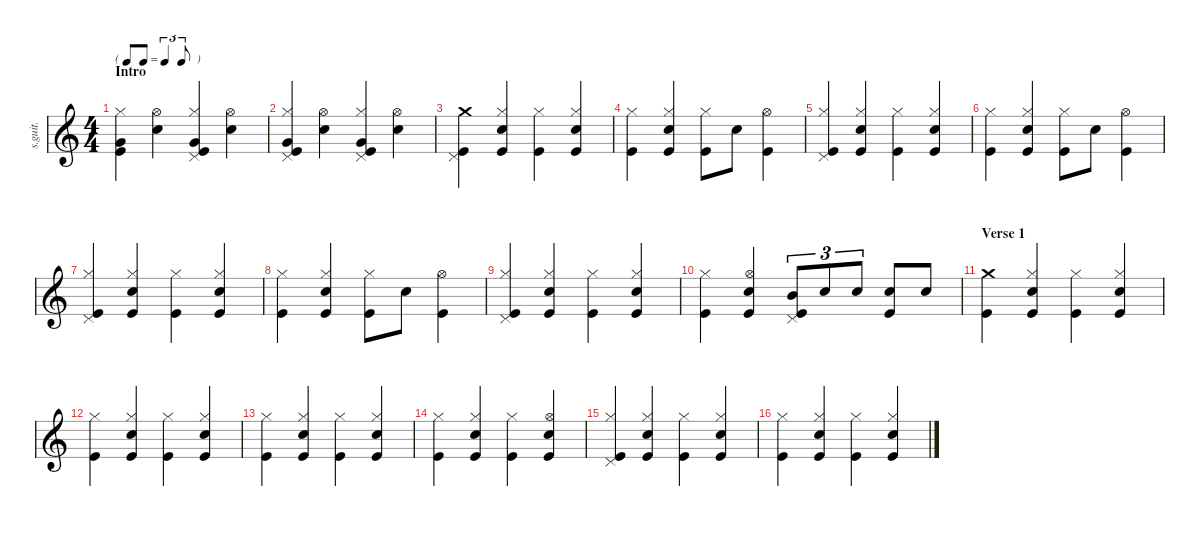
\defaultSystemsLayout 4
\hideDynamics
\bracketExtendMode nobrackets
\track ("Dave Grohl" "s.guit.") {instrument percussion}
\staff {score}
\articulation defaults
\ts (4 4)
\beaming (8 2 2 2 2)
\tf triplet8th
\section ("" "Intro")
\tempo (171 hide)
\clef g2
\ks c
("Kick (hit)" "Very Low Tom (hit)" "Hi-Hat (closed)").4{lyrics (0 "") lyrics (1 "") lyrics (2 "") lyrics (3 "") lyrics (4 "") dy mf} ("Hi-Hat (open)" "Snare (hit) 2").4{lyrics (0 "") lyrics (1 "") lyrics (2 "") lyrics (3 "") lyrics (4 "")} ("Kick (hit)" "Very Low Tom (hit)" "Hi-Hat (closed)" "Pedal Hi-Hat (hit)").4{lyrics (0 "") lyrics (1 "") lyrics (2 "") lyrics (3 "") lyrics (4 "")} ("Snare (hit) 2" "Hi-Hat (open)").4{lyrics (0 "") lyrics (1 "") lyrics (2 "") lyrics (3 "") lyrics (4 "")} |
("Kick (hit)" "Very Low Tom (hit)" "Hi-Hat (closed)" "Pedal Hi-Hat (hit)").4{lyrics (0 "") lyrics (1 "") lyrics (2 "") lyrics (3 "") lyrics (4 "")} ("Hi-Hat (open)" "Snare (hit) 2").4{lyrics (0 "") lyrics (1 "") lyrics (2 "") lyrics (3 "") lyrics (4 "")} ("Kick (hit)" "Very Low Tom (hit)" "Hi-Hat (closed)" "Pedal Hi-Hat (hit)").4{lyrics (0 "") lyrics (1 "") lyrics (2 "") lyrics (3 "") lyrics (4 "")} ("Snare (hit) 2" "Hi-Hat (open)").4{lyrics (0 "") lyrics (1 "") lyrics (2 "") lyrics (3 "") lyrics (4 "")} |
("Kick (hit)" "Crash medium (hit)" "Pedal Hi-Hat (hit)").4{lyrics (0 "") lyrics (1 "") lyrics (2 "") lyrics (3 "") lyrics (4 "")} ("Kick (hit)" "Snare (hit) 2" "Hi-Hat (closed)").4{lyrics (0 "") lyrics (1 "") lyrics (2 "") lyrics (3 "") lyrics (4 "")} ("Kick (hit)" "Hi-Hat (closed)").4{lyrics (0 "") lyrics (1 "") lyrics (2 "") lyrics (3 "") lyrics (4 "")} ("Kick (hit)" "Snare (hit) 2" "Hi-Hat (closed)").4{lyrics (0 "") lyrics (1 "") lyrics (2 "") lyrics (3 "") lyrics (4 "")} |
("Kick (hit)" "Hi-Hat (closed)").4{lyrics (0 "") lyrics (1 "") lyrics (2 "") lyrics (3 "") lyrics (4 "")} ("Kick (hit)" "Snare (hit) 2" "Hi-Hat (closed)").4{lyrics (0 "") lyrics (1 "") lyrics (2 "") lyrics (3 "") lyrics (4 "")} ("Kick (hit)" "Hi-Hat (closed)").8{lyrics (0 "") lyrics (1 "") lyrics (2 "") lyrics (3 "") lyrics (4 "")} "Snare (hit) 2".8{lyrics (0 "") lyrics (1 "") lyrics (2 "") lyrics (3 "") lyrics (4 "")} ("Kick (hit)" "Hi-Hat (open)").4{lyrics (0 "") lyrics (1 "") lyrics (2 "") lyrics (3 "") lyrics (4 "")} |
("Kick (hit)" "Hi-Hat (closed)" "Pedal Hi-Hat (hit)").4{lyrics (0 "") lyrics (1 "") lyrics (2 "") lyrics (3 "") lyrics (4 "")} ("Kick (hit)" "Snare (hit) 2" "Hi-Hat (closed)").4{lyrics (0 "") lyrics (1 "") lyrics (2 "") lyrics (3 "") lyrics (4 "")} ("Kick (hit)" "Hi-Hat (closed)").4{lyrics (0 "") lyrics (1 "") lyrics (2 "") lyrics (3 "") lyrics (4 "")} ("Kick (hit)" "Snare (hit) 2" "Hi-Hat (closed)").4{lyrics (0 "") lyrics (1 "") lyrics (2 "") lyrics (3 "") lyrics (4 "")} |
("Kick (hit)" "Hi-Hat (closed)").4{lyrics (0 "") lyrics (1 "") lyrics (2 "") lyrics (3 "") lyrics (4 "")} ("Kick (hit)" "Snare (hit) 2" "Hi-Hat (closed)").4{lyrics (0 "") lyrics (1 "") lyrics (2 "") lyrics (3 "") lyrics (4 "")} ("Kick (hit)" "Hi-Hat (closed)").8{lyrics (0 "") lyrics (1 "") lyrics (2 "") lyrics (3 "") lyrics (4 "")} "Snare (hit) 2".8{lyrics (0 "") lyrics (1 "") lyrics (2 "") lyrics (3 "") lyrics (4 "")} ("Kick (hit)" "Hi-Hat (open)").4{lyrics (0 "") lyrics (1 "") lyrics (2 "") lyrics (3 "") lyrics (4 "")} |
("Kick (hit)" "Hi-Hat (closed)" "Pedal Hi-Hat (hit)").4{lyrics (0 "") lyrics (1 "") lyrics (2 "") lyrics (3 "") lyrics (4 "")} ("Kick (hit)" "Snare (hit) 2" "Hi-Hat (closed)").4{lyrics (0 "") lyrics (1 "") lyrics (2 "") lyrics (3 "") lyrics (4 "")} ("Kick (hit)" "Hi-Hat (closed)").4{lyrics (0 "") lyrics (1 "") lyrics (2 "") lyrics (3 "") lyrics (4 "")} ("Kick (hit)" "Snare (hit) 2" "Hi-Hat (closed)").4{lyrics (0 "") lyrics (1 "") lyrics (2 "") lyrics (3 "") lyrics (4 "")} |
("Kick (hit)" "Hi-Hat (closed)").4{lyrics (0 "") lyrics (1 "") lyrics (2 "") lyrics (3 "") lyrics (4 "")} ("Kick (hit)" "Snare (hit) 2" "Hi-Hat (closed)").4{lyrics (0 "") lyrics (1 "") lyrics (2 "") lyrics (3 "") lyrics (4 "")} ("Kick (hit)" "Hi-Hat (closed)").8{lyrics (0 "") lyrics (1 "") lyrics (2 "") lyrics (3 "") lyrics (4 "")} "Snare (hit) 2".8{lyrics (0 "") lyrics (1 "") lyrics (2 "") lyrics (3 "") lyrics (4 "")} ("Kick (hit)" "Hi-Hat (open)").4{lyrics (0 "") lyrics (1 "") lyrics (2 "") lyrics (3 "") lyrics (4 "")} |
("Kick (hit)" "Hi-Hat (closed)" "Pedal Hi-Hat (hit)").4{lyrics (0 "") lyrics (1 "") lyrics (2 "") lyrics (3 "") lyrics (4 "")} ("Kick (hit)" "Snare (hit) 2" "Hi-Hat (closed)").4{lyrics (0 "") lyrics (1 "") lyrics (2 "") lyrics (3 "") lyrics (4 "")} ("Kick (hit)" "Hi-Hat (closed)").4{lyrics (0 "") lyrics (1 "") lyrics (2 "") lyrics (3 "") lyrics (4 "")} ("Kick (hit)" "Snare (hit) 2" "Hi-Hat (closed)").4{lyrics (0 "") lyrics (1 "") lyrics (2 "") lyrics (3 "") lyrics (4 "")} |
("Kick (hit)" "Hi-Hat (closed)").4{lyrics (0 "") lyrics (1 "") lyrics (2 "") lyrics (3 "") lyrics (4 "")} ("Kick (hit)" "Snare (hit) 2" "Hi-Hat (open)").4{lyrics (0 "") lyrics (1 "") lyrics (2 "") lyrics (3 "") lyrics (4 "")} ("Kick (hit)" "Pedal Hi-Hat (hit)" "Mid Tom (hit)").8{tu (3 2) lyrics (0 "") lyrics (1 "") lyrics (2 "") lyrics (3 "") lyrics (4 "")} "Snare (hit) 2".8{tu (3 2) lyrics (0 "") lyrics (1 "") lyrics (2 "") lyrics (3 "") lyrics (4 "")} "Snare (hit) 2".8{tu (3 2) lyrics (0 "") lyrics (1 "") lyrics (2 "") lyrics (3 "") lyrics (4 "")} ("Kick (hit)" "Snare (hit) 2").8{lyrics (0 "") lyrics (1 "") lyrics (2 "") lyrics (3 "") lyrics (4 "")} "Snare (hit) 2".8{lyrics (0 "") lyrics (1 "") lyrics (2 "") lyrics (3 "") lyrics (4 "")} |
\section ("" "Verse 1")
("Kick (hit)" "Crash medium (hit)").4{lyrics (0 "") lyrics (1 "") lyrics (2 "") lyrics (3 "") lyrics (4 "")} ("Kick (hit)" "Snare (hit) 2" "Hi-Hat (closed)").4{lyrics (0 "") lyrics (1 "") lyrics (2 "") lyrics (3 "") lyrics (4 "")} ("Kick (hit)" "Hi-Hat (closed)").4{lyrics (0 "") lyrics (1 "") lyrics (2 "") lyrics (3 "") lyrics (4 "")} ("Kick (hit)" "Snare (hit) 2" "Hi-Hat (closed)").4{lyrics (0 "") lyrics (1 "") lyrics (2 "") lyrics (3 "") lyrics (4 "")} |
("Kick (hit)" "Hi-Hat (closed)").4{lyrics (0 "") lyrics (1 "") lyrics (2 "") lyrics (3 "") lyrics (4 "")} ("Kick (hit)" "Snare (hit) 2" "Hi-Hat (closed)").4{lyrics (0 "") lyrics (1 "") lyrics (2 "") lyrics (3 "") lyrics (4 "")} ("Kick (hit)" "Hi-Hat (closed)").4{lyrics (0 "") lyrics (1 "") lyrics (2 "") lyrics (3 "") lyrics (4 "")} ("Kick (hit)" "Snare (hit) 2" "Hi-Hat (closed)").4{lyrics (0 "") lyrics (1 "") lyrics (2 "") lyrics (3 "") lyrics (4 "")} |
("Kick (hit)" "Hi-Hat (closed)").4{lyrics (0 "") lyrics (1 "") lyrics (2 "") lyrics (3 "") lyrics (4 "")} ("Kick (hit)" "Snare (hit) 2" "Hi-Hat (closed)").4{lyrics (0 "") lyrics (1 "") lyrics (2 "") lyrics (3 "") lyrics (4 "")} ("Kick (hit)" "Hi-Hat (closed)").4{lyrics (0 "") lyrics (1 "") lyrics (2 "") lyrics (3 "") lyrics (4 "")} ("Kick (hit)" "Snare (hit) 2" "Hi-Hat (closed)").4{lyrics (0 "") lyrics (1 "") lyrics (2 "") lyrics (3 "") lyrics (4 "")} |
("Kick (hit)" "Hi-Hat (closed)").4{lyrics (0 "") lyrics (1 "") lyrics (2 "") lyrics (3 "") lyrics (4 "")} ("Kick (hit)" "Snare (hit) 2" "Hi-Hat (closed)").4{lyrics (0 "") lyrics (1 "") lyrics (2 "") lyrics (3 "") lyrics (4 "")} ("Kick (hit)" "Hi-Hat (closed)").4{lyrics (0 "") lyrics (1 "") lyrics (2 "") lyrics (3 "") lyrics (4 "")} ("Kick (hit)" "Snare (hit) 2" "Hi-Hat (open)").4{lyrics (0 "") lyrics (1 "") lyrics (2 "") lyrics (3 "") lyrics (4 "")} |
("Kick (hit)" "Hi-Hat (closed)" "Pedal Hi-Hat (hit)").4{lyrics (0 "") lyrics (1 "") lyrics (2 "") lyrics (3 "") lyrics (4 "")} ("Kick (hit)" "Snare (hit) 2" "Hi-Hat (closed)").4{lyrics (0 "") lyrics (1 "") lyrics (2 "") lyrics (3 "") lyrics (4 "")} ("Kick (hit)" "Hi-Hat (closed)").4{lyrics (0 "") lyrics (1 "") lyrics (2 "") lyrics (3 "") lyrics (4 "")} ("Kick (hit)" "Snare (hit) 2" "Hi-Hat (closed)").4{lyrics (0 "") lyrics (1 "") lyrics (2 "") lyrics (3 "") lyrics (4 "")} |
("Kick (hit)" "Hi-Hat (closed)").4{lyrics (0 "") lyrics (1 "") lyrics (2 "") lyrics (3 "") lyrics (4 "")} ("Kick (hit)" "Snare (hit) 2" "Hi-Hat (closed)").4{lyrics (0 "") lyrics (1 "") lyrics (2 "") lyrics (3 "") lyrics (4 "")} ("Kick (hit)" "Hi-Hat (closed)").4{lyrics (0 "") lyrics (1 "") lyrics (2 "") lyrics (3 "") lyrics (4 "")} ("Kick (hit)" "Snare (hit) 2" "Hi-Hat (closed)").4{lyrics (0 "") lyrics (1 "") lyrics (2 "") lyrics (3 "") lyrics (4 "")}
